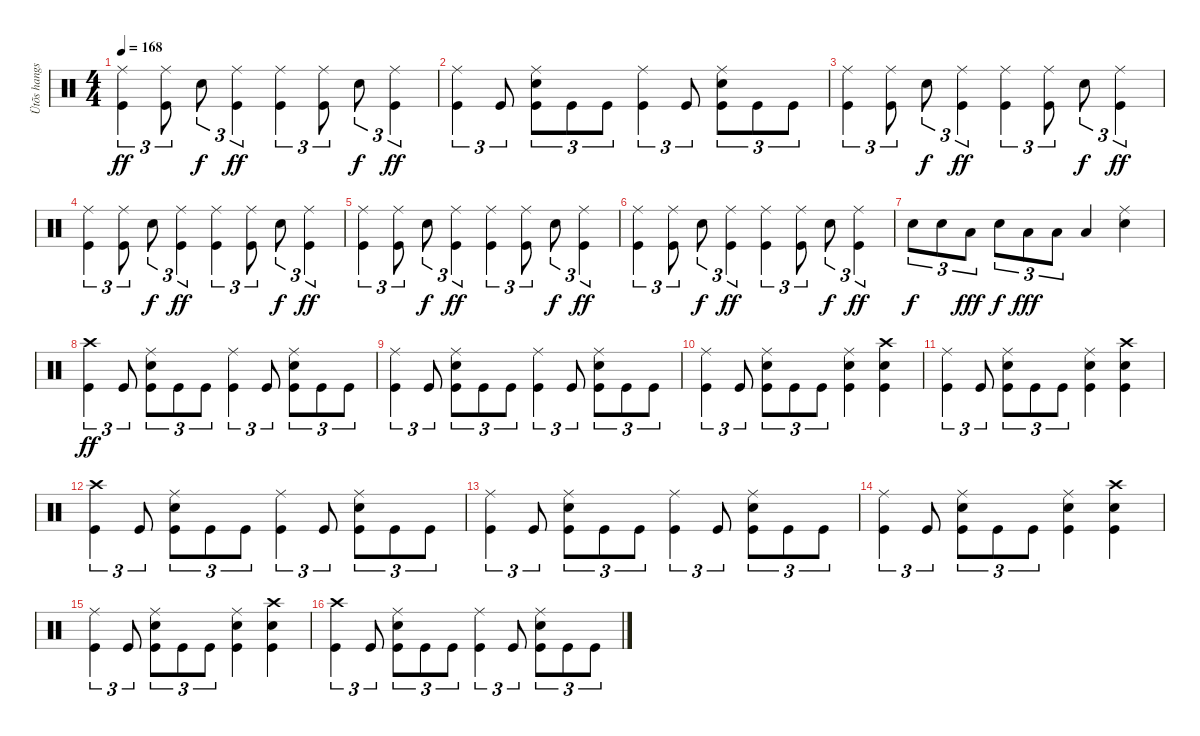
\track ("Ütõs hangszer" "Ütõs hangs") {instrument percussion}
\staff {score}
\articulation defaults
\ts (4 4)
\tempo 168
\clef neutral
\ks c
("Ride (middle)" "Kick (hit)").4{tu (3 2) dy ff} ("Ride (middle)" "Kick (hit)").8{tu (3 2)} "Electric Snare (hit)".8{tu (3 2) dy f} ("Ride (middle)" "Kick (hit)").4{tu (3 2) dy ff} ("Ride (middle)" "Kick (hit)").4{tu (3 2)} ("Ride (middle)" "Kick (hit)").8{tu (3 2)} "Electric Snare (hit)".8{tu (3 2) dy f} ("Ride (middle)" "Kick (hit)").4{tu (3 2) dy ff} |
("Ride (middle)" "Kick (hit)").4{tu (3 2)} "Kick (hit)".8{tu (3 2)} ("Ride (middle)" "Electric Snare (hit)" "Kick (hit)").8{tu (3 2)} "Kick (hit)".8{tu (3 2)} "Kick (hit)".8{tu (3 2)} ("Ride (middle)" "Kick (hit)").4{tu (3 2)} "Kick (hit)".8{tu (3 2)} ("Ride (middle)" "Electric Snare (hit)" "Kick (hit)").8{tu (3 2)} "Kick (hit)".8{tu (3 2)} "Kick (hit)".8{tu (3 2)} |
("Ride (middle)" "Kick (hit)").4{tu (3 2)} ("Ride (middle)" "Kick (hit)").8{tu (3 2)} "Electric Snare (hit)".8{tu (3 2) dy f} ("Ride (middle)" "Kick (hit)").4{tu (3 2) dy ff} ("Ride (middle)" "Kick (hit)").4{tu (3 2)} ("Ride (middle)" "Kick (hit)").8{tu (3 2)} "Electric Snare (hit)".8{tu (3 2) dy f} ("Ride (middle)" "Kick (hit)").4{tu (3 2) dy ff} |
("Ride (middle)" "Kick (hit)").4{tu (3 2)} ("Ride (middle)" "Kick (hit)").8{tu (3 2)} "Electric Snare (hit)".8{tu (3 2) dy f} ("Ride (middle)" "Kick (hit)").4{tu (3 2) dy ff} ("Ride (middle)" "Kick (hit)").4{tu (3 2)} ("Ride (middle)" "Kick (hit)").8{tu (3 2)} "Electric Snare (hit)".8{tu (3 2) dy f} ("Ride (middle)" "Kick (hit)").4{tu (3 2) dy ff} |
("Ride (middle)" "Kick (hit)").4{tu (3 2)} ("Ride (middle)" "Kick (hit)").8{tu (3 2)} "Electric Snare (hit)".8{tu (3 2) dy f} ("Ride (middle)" "Kick (hit)").4{tu (3 2) dy ff} ("Ride (middle)" "Kick (hit)").4{tu (3 2)} ("Ride (middle)" "Kick (hit)").8{tu (3 2)} "Electric Snare (hit)".8{tu (3 2) dy f} ("Ride (middle)" "Kick (hit)").4{tu (3 2) dy ff} |
("Ride (middle)" "Kick (hit)").4{tu (3 2)} ("Ride (middle)" "Kick (hit)").8{tu (3 2)} "Electric Snare (hit)".8{tu (3 2) dy f} ("Ride (middle)" "Kick (hit)").4{tu (3 2) dy ff} ("Ride (middle)" "Kick (hit)").4{tu (3 2)} ("Ride (middle)" "Kick (hit)").8{tu (3 2)} "Electric Snare (hit)".8{tu (3 2) dy f} ("Ride (middle)" "Kick (hit)").4{tu (3 2) dy ff} |
"Electric Snare (hit)".8{tu (3 2) dy f} "Electric Snare (hit)".8{tu (3 2)} "Low Tom (hit)".8{tu (3 2) dy fff} "Electric Snare (hit)".8{tu (3 2) dy f} "Low Tom (hit)".8{tu (3 2) dy fff} "Low Tom (hit)".8{tu (3 2)} "Low Tom (hit)".4 ("Ride (middle)" "Electric Snare (hit)").4 |
("Crash high (hit)" "Kick (hit)").4{tu (3 2) dy ff} "Kick (hit)".8{tu (3 2)} ("Ride (middle)" "Electric Snare (hit)" "Kick (hit)").8{tu (3 2)} "Kick (hit)".8{tu (3 2)} "Kick (hit)".8{tu (3 2)} ("Ride (middle)" "Kick (hit)").4{tu (3 2)} "Kick (hit)".8{tu (3 2)} ("Ride (middle)" "Electric Snare (hit)" "Kick (hit)").8{tu (3 2)} "Kick (hit)".8{tu (3 2)} "Kick (hit)".8{tu (3 2)} |
("Ride (middle)" "Kick (hit)").4{tu (3 2)} "Kick (hit)".8{tu (3 2)} ("Ride (middle)" "Electric Snare (hit)" "Kick (hit)").8{tu (3 2)} "Kick (hit)".8{tu (3 2)} "Kick (hit)".8{tu (3 2)} ("Ride (middle)" "Kick (hit)").4{tu (3 2)} "Kick (hit)".8{tu (3 2)} ("Ride (middle)" "Electric Snare (hit)" "Kick (hit)").8{tu (3 2)} "Kick (hit)".8{tu (3 2)} "Kick (hit)".8{tu (3 2)} |
("Ride (middle)" "Kick (hit)").4{tu (3 2)} "Kick (hit)".8{tu (3 2)} ("Ride (middle)" "Electric Snare (hit)" "Kick (hit)").8{tu (3 2)} "Kick (hit)".8{tu (3 2)} "Kick (hit)".8{tu (3 2)} ("Ride (middle)" "Electric Snare (hit)" "Kick (hit)").4 ("Crash high (hit)" "Electric Snare (hit)" "Kick (hit)").4 |
("Ride (middle)" "Kick (hit)").4{tu (3 2)} "Kick (hit)".8{tu (3 2)} ("Ride (middle)" "Electric Snare (hit)" "Kick (hit)").8{tu (3 2)} "Kick (hit)".8{tu (3 2)} "Kick (hit)".8{tu (3 2)} ("Ride (middle)" "Electric Snare (hit)" "Kick (hit)").4 ("Crash high (hit)" "Electric Snare (hit)" "Kick (hit)").4 |
("Crash high (hit)" "Kick (hit)").4{tu (3 2)} "Kick (hit)".8{tu (3 2)} ("Ride (middle)" "Electric Snare (hit)" "Kick (hit)").8{tu (3 2)} "Kick (hit)".8{tu (3 2)} "Kick (hit)".8{tu (3 2)} ("Ride (middle)" "Kick (hit)").4{tu (3 2)} "Kick (hit)".8{tu (3 2)} ("Ride (middle)" "Electric Snare (hit)" "Kick (hit)").8{tu (3 2)} "Kick (hit)".8{tu (3 2)} "Kick (hit)".8{tu (3 2)} |
("Ride (middle)" "Kick (hit)").4{tu (3 2)} "Kick (hit)".8{tu (3 2)} ("Ride (middle)" "Electric Snare (hit)" "Kick (hit)").8{tu (3 2)} "Kick (hit)".8{tu (3 2)} "Kick (hit)".8{tu (3 2)} ("Ride (middle)" "Kick (hit)").4{tu (3 2)} "Kick (hit)".8{tu (3 2)} ("Ride (middle)" "Electric Snare (hit)" "Kick (hit)").8{tu (3 2)} "Kick (hit)".8{tu (3 2)} "Kick (hit)".8{tu (3 2)} |
("Ride (middle)" "Kick (hit)").4{tu (3 2)} "Kick (hit)".8{tu (3 2)} ("Ride (middle)" "Electric Snare (hit)" "Kick (hit)").8{tu (3 2)} "Kick (hit)".8{tu (3 2)} "Kick (hit)".8{tu (3 2)} ("Ride (middle)" "Electric Snare (hit)" "Kick (hit)").4 ("Crash high (hit)" "Electric Snare (hit)" "Kick (hit)").4 |
("Ride (middle)" "Kick (hit)").4{tu (3 2)} "Kick (hit)".8{tu (3 2)} ("Ride (middle)" "Electric Snare (hit)" "Kick (hit)").8{tu (3 2)} "Kick (hit)".8{tu (3 2)} "Kick (hit)".8{tu (3 2)} ("Ride (middle)" "Electric Snare (hit)" "Kick (hit)").4 ("Crash high (hit)" "Electric Snare (hit)" "Kick (hit)").4 |
("Crash high (hit)" "Kick (hit)").4{tu (3 2)} "Kick (hit)".8{tu (3 2)} ("Ride (middle)" "Electric Snare (hit)" "Kick (hit)").8{tu (3 2)} "Kick (hit)".8{tu (3 2)} "Kick (hit)".8{tu (3 2)} ("Ride (middle)" "Kick (hit)").4{tu (3 2)} "Kick (hit)".8{tu (3 2)} ("Ride (middle)" "Electric Snare (hit)" "Kick (hit)").8{tu (3 2)} "Kick (hit)".8{tu (3 2)} "Kick (hit)".8{tu (3 2)}
